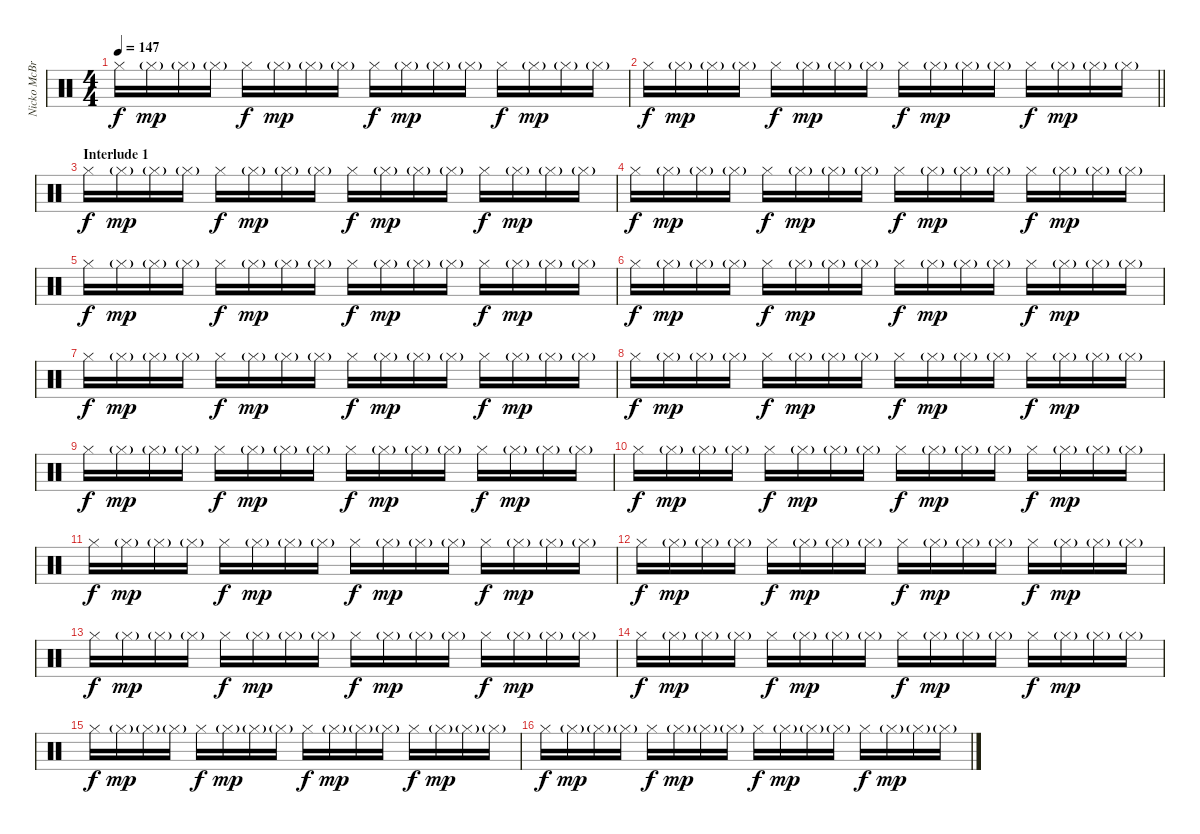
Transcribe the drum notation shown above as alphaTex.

\track ("Nicko McBrain" "Nicko McBr") {instrument percussion}
\staff {score}
\articulation defaults
\ts (4 4)
\tempo 147
\clef neutral
\ks c "Hi-Hat (closed)".16{dy f} "Hi-Hat (closed)"{g}.16{dy mp} "Hi-Hat (closed)"{g}.16 "Hi-Hat (closed)"{g}.16 "Hi-Hat (closed)".16{dy f} "Hi-Hat (closed)"{g}.16{dy mp} "Hi-Hat (closed)"{g}.16 "Hi-Hat (closed)"{g}.16 "Hi-Hat (closed)".16{dy f} "Hi-Hat (closed)"{g}.16{dy mp} "Hi-Hat (closed)"{g}.16 "Hi-Hat (closed)"{g}.16 "Hi-Hat (closed)".16{dy f} "Hi-Hat (closed)"{g}.16{dy mp} "Hi-Hat (closed)"{g}.16 "Hi-Hat (closed)"{g}.16
|
\barLineRight lightlight "Hi-Hat (closed)".16{dy f} "Hi-Hat (closed)"{g}.16{dy mp} "Hi-Hat (closed)"{g}.16 "Hi-Hat (closed)"{g}.16 "Hi-Hat (closed)".16{dy f} "Hi-Hat (closed)"{g}.16{dy mp} "Hi-Hat (closed)"{g}.16 "Hi-Hat (closed)"{g}.16 "Hi-Hat (closed)".16{dy f} "Hi-Hat (closed)"{g}.16{dy mp} "Hi-Hat (closed)"{g}.16 "Hi-Hat (closed)"{g}.16 "Hi-Hat (closed)".16{dy f} "Hi-Hat (closed)"{g}.16{dy mp} "Hi-Hat (closed)"{g}.16 "Hi-Hat (closed)"{g}.16
|
\section ("" "Interlude 1")
"Hi-Hat (closed)".16{dy f} "Hi-Hat (closed)"{g}.16{dy mp} "Hi-Hat (closed)"{g}.16 "Hi-Hat (closed)"{g}.16 "Hi-Hat (closed)".16{dy f} "Hi-Hat (closed)"{g}.16{dy mp} "Hi-Hat (closed)"{g}.16 "Hi-Hat (closed)"{g}.16 "Hi-Hat (closed)".16{dy f} "Hi-Hat (closed)"{g}.16{dy mp} "Hi-Hat (closed)"{g}.16 "Hi-Hat (closed)"{g}.16 "Hi-Hat (closed)".16{dy f} "Hi-Hat (closed)"{g}.16{dy mp} "Hi-Hat (closed)"{g}.16 "Hi-Hat (closed)"{g}.16 |
"Hi-Hat (closed)".16{dy f} "Hi-Hat (closed)"{g}.16{dy mp} "Hi-Hat (closed)"{g}.16 "Hi-Hat (closed)"{g}.16 "Hi-Hat (closed)".16{dy f} "Hi-Hat (closed)"{g}.16{dy mp} "Hi-Hat (closed)"{g}.16 "Hi-Hat (closed)"{g}.16 "Hi-Hat (closed)".16{dy f} "Hi-Hat (closed)"{g}.16{dy mp} "Hi-Hat (closed)"{g}.16 "Hi-Hat (closed)"{g}.16 "Hi-Hat (closed)".16{dy f} "Hi-Hat (closed)"{g}.16{dy mp} "Hi-Hat (closed)"{g}.16 "Hi-Hat (closed)"{g}.16 |
"Hi-Hat (closed)".16{dy f} "Hi-Hat (closed)"{g}.16{dy mp} "Hi-Hat (closed)"{g}.16 "Hi-Hat (closed)"{g}.16 "Hi-Hat (closed)".16{dy f} "Hi-Hat (closed)"{g}.16{dy mp} "Hi-Hat (closed)"{g}.16 "Hi-Hat (closed)"{g}.16 "Hi-Hat (closed)".16{dy f} "Hi-Hat (closed)"{g}.16{dy mp} "Hi-Hat (closed)"{g}.16 "Hi-Hat (closed)"{g}.16 "Hi-Hat (closed)".16{dy f} "Hi-Hat (closed)"{g}.16{dy mp} "Hi-Hat (closed)"{g}.16 "Hi-Hat (closed)"{g}.16 |
"Hi-Hat (closed)".16{dy f} "Hi-Hat (closed)"{g}.16{dy mp} "Hi-Hat (closed)"{g}.16 "Hi-Hat (closed)"{g}.16 "Hi-Hat (closed)".16{dy f} "Hi-Hat (closed)"{g}.16{dy mp} "Hi-Hat (closed)"{g}.16 "Hi-Hat (closed)"{g}.16 "Hi-Hat (closed)".16{dy f} "Hi-Hat (closed)"{g}.16{dy mp} "Hi-Hat (closed)"{g}.16 "Hi-Hat (closed)"{g}.16 "Hi-Hat (closed)".16{dy f} "Hi-Hat (closed)"{g}.16{dy mp} "Hi-Hat (closed)"{g}.16 "Hi-Hat (closed)"{g}.16 |
"Hi-Hat (closed)".16{dy f} "Hi-Hat (closed)"{g}.16{dy mp} "Hi-Hat (closed)"{g}.16 "Hi-Hat (closed)"{g}.16 "Hi-Hat (closed)".16{dy f} "Hi-Hat (closed)"{g}.16{dy mp} "Hi-Hat (closed)"{g}.16 "Hi-Hat (closed)"{g}.16 "Hi-Hat (closed)".16{dy f} "Hi-Hat (closed)"{g}.16{dy mp} "Hi-Hat (closed)"{g}.16 "Hi-Hat (closed)"{g}.16 "Hi-Hat (closed)".16{dy f} "Hi-Hat (closed)"{g}.16{dy mp} "Hi-Hat (closed)"{g}.16 "Hi-Hat (closed)"{g}.16 |
"Hi-Hat (closed)".16{dy f} "Hi-Hat (closed)"{g}.16{dy mp} "Hi-Hat (closed)"{g}.16 "Hi-Hat (closed)"{g}.16 "Hi-Hat (closed)".16{dy f} "Hi-Hat (closed)"{g}.16{dy mp} "Hi-Hat (closed)"{g}.16 "Hi-Hat (closed)"{g}.16 "Hi-Hat (closed)".16{dy f} "Hi-Hat (closed)"{g}.16{dy mp} "Hi-Hat (closed)"{g}.16 "Hi-Hat (closed)"{g}.16 "Hi-Hat (closed)".16{dy f} "Hi-Hat (closed)"{g}.16{dy mp} "Hi-Hat (closed)"{g}.16 "Hi-Hat (closed)"{g}.16 |
"Hi-Hat (closed)".16{dy f} "Hi-Hat (closed)"{g}.16{dy mp} "Hi-Hat (closed)"{g}.16 "Hi-Hat (closed)"{g}.16 "Hi-Hat (closed)".16{dy f} "Hi-Hat (closed)"{g}.16{dy mp} "Hi-Hat (closed)"{g}.16 "Hi-Hat (closed)"{g}.16 "Hi-Hat (closed)".16{dy f} "Hi-Hat (closed)"{g}.16{dy mp} "Hi-Hat (closed)"{g}.16 "Hi-Hat (closed)"{g}.16 "Hi-Hat (closed)".16{dy f} "Hi-Hat (closed)"{g}.16{dy mp} "Hi-Hat (closed)"{g}.16 "Hi-Hat (closed)"{g}.16 |
"Hi-Hat (closed)".16{dy f} "Hi-Hat (closed)"{g}.16{dy mp} "Hi-Hat (closed)"{g}.16 "Hi-Hat (closed)"{g}.16 "Hi-Hat (closed)".16{dy f} "Hi-Hat (closed)"{g}.16{dy mp} "Hi-Hat (closed)"{g}.16 "Hi-Hat (closed)"{g}.16 "Hi-Hat (closed)".16{dy f} "Hi-Hat (closed)"{g}.16{dy mp} "Hi-Hat (closed)"{g}.16 "Hi-Hat (closed)"{g}.16 "Hi-Hat (closed)".16{dy f} "Hi-Hat (closed)"{g}.16{dy mp} "Hi-Hat (closed)"{g}.16 "Hi-Hat (closed)"{g}.16 |
"Hi-Hat (closed)".16{dy f} "Hi-Hat (closed)"{g}.16{dy mp} "Hi-Hat (closed)"{g}.16 "Hi-Hat (closed)"{g}.16 "Hi-Hat (closed)".16{dy f} "Hi-Hat (closed)"{g}.16{dy mp} "Hi-Hat (closed)"{g}.16 "Hi-Hat (closed)"{g}.16 "Hi-Hat (closed)".16{dy f} "Hi-Hat (closed)"{g}.16{dy mp} "Hi-Hat (closed)"{g}.16 "Hi-Hat (closed)"{g}.16 "Hi-Hat (closed)".16{dy f} "Hi-Hat (closed)"{g}.16{dy mp} "Hi-Hat (closed)"{g}.16 "Hi-Hat (closed)"{g}.16 |
"Hi-Hat (closed)".16{dy f} "Hi-Hat (closed)"{g}.16{dy mp} "Hi-Hat (closed)"{g}.16 "Hi-Hat (closed)"{g}.16 "Hi-Hat (closed)".16{dy f} "Hi-Hat (closed)"{g}.16{dy mp} "Hi-Hat (closed)"{g}.16 "Hi-Hat (closed)"{g}.16 "Hi-Hat (closed)".16{dy f} "Hi-Hat (closed)"{g}.16{dy mp} "Hi-Hat (closed)"{g}.16 "Hi-Hat (closed)"{g}.16 "Hi-Hat (closed)".16{dy f} "Hi-Hat (closed)"{g}.16{dy mp} "Hi-Hat (closed)"{g}.16 "Hi-Hat (closed)"{g}.16 |
"Hi-Hat (closed)".16{dy f} "Hi-Hat (closed)"{g}.16{dy mp} "Hi-Hat (closed)"{g}.16 "Hi-Hat (closed)"{g}.16 "Hi-Hat (closed)".16{dy f} "Hi-Hat (closed)"{g}.16{dy mp} "Hi-Hat (closed)"{g}.16 "Hi-Hat (closed)"{g}.16 "Hi-Hat (closed)".16{dy f} "Hi-Hat (closed)"{g}.16{dy mp} "Hi-Hat (closed)"{g}.16 "Hi-Hat (closed)"{g}.16 "Hi-Hat (closed)".16{dy f} "Hi-Hat (closed)"{g}.16{dy mp} "Hi-Hat (closed)"{g}.16 "Hi-Hat (closed)"{g}.16 |
"Hi-Hat (closed)".16{dy f} "Hi-Hat (closed)"{g}.16{dy mp} "Hi-Hat (closed)"{g}.16 "Hi-Hat (closed)"{g}.16 "Hi-Hat (closed)".16{dy f} "Hi-Hat (closed)"{g}.16{dy mp} "Hi-Hat (closed)"{g}.16 "Hi-Hat (closed)"{g}.16 "Hi-Hat (closed)".16{dy f} "Hi-Hat (closed)"{g}.16{dy mp} "Hi-Hat (closed)"{g}.16 "Hi-Hat (closed)"{g}.16 "Hi-Hat (closed)".16{dy f} "Hi-Hat (closed)"{g}.16{dy mp} "Hi-Hat (closed)"{g}.16 "Hi-Hat (closed)"{g}.16 |
"Hi-Hat (closed)".16{dy f} "Hi-Hat (closed)"{g}.16{dy mp} "Hi-Hat (closed)"{g}.16 "Hi-Hat (closed)"{g}.16 "Hi-Hat (closed)".16{dy f} "Hi-Hat (closed)"{g}.16{dy mp} "Hi-Hat (closed)"{g}.16 "Hi-Hat (closed)"{g}.16 "Hi-Hat (closed)".16{dy f} "Hi-Hat (closed)"{g}.16{dy mp} "Hi-Hat (closed)"{g}.16 "Hi-Hat (closed)"{g}.16 "Hi-Hat (closed)".16{dy f} "Hi-Hat (closed)"{g}.16{dy mp} "Hi-Hat (closed)"{g}.16 "Hi-Hat (closed)"{g}.16 |
"Hi-Hat (closed)".16{dy f} "Hi-Hat (closed)"{g}.16{dy mp} "Hi-Hat (closed)"{g}.16 "Hi-Hat (closed)"{g}.16 "Hi-Hat (closed)".16{dy f} "Hi-Hat (closed)"{g}.16{dy mp} "Hi-Hat (closed)"{g}.16 "Hi-Hat (closed)"{g}.16 "Hi-Hat (closed)".16{dy f} "Hi-Hat (closed)"{g}.16{dy mp} "Hi-Hat (closed)"{g}.16 "Hi-Hat (closed)"{g}.16 "Hi-Hat (closed)".16{dy f} "Hi-Hat (closed)"{g}.16{dy mp} "Hi-Hat (closed)"{g}.16 "Hi-Hat (closed)"{g}.16
